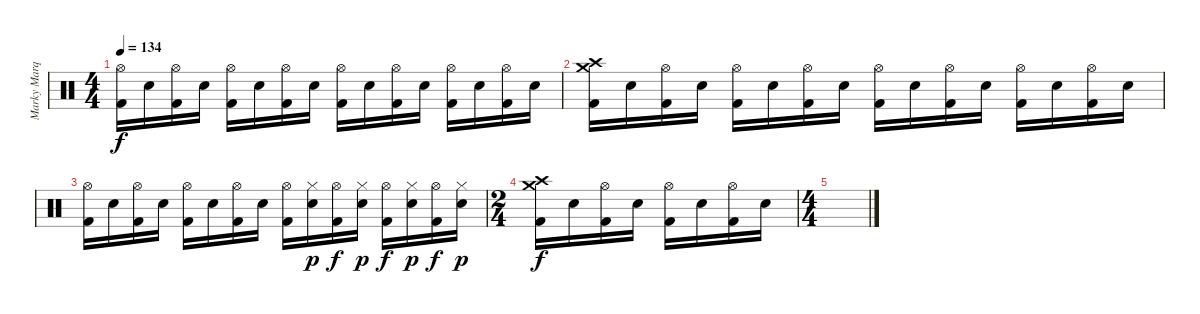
\track ("Marky Marquis" "Marky Marq") {instrument percussion}
\staff {score}
\articulation defaults
\ts (4 4)
\tempo 134
\clef neutral
\ks c
("Hi-Hat (open)" "Kick (hit) 2").16{dy f} "Electric Snare (hit)".16 ("Hi-Hat (open)" "Kick (hit) 2").16 "Electric Snare (hit)".16 ("Hi-Hat (open)" "Kick (hit) 2").16 "Electric Snare (hit)".16 ("Hi-Hat (open)" "Kick (hit) 2").16 "Electric Snare (hit)".16 ("Hi-Hat (open)" "Kick (hit) 2").16 "Electric Snare (hit)".16 ("Hi-Hat (open)" "Kick (hit) 2").16 "Electric Snare (hit)".16 ("Hi-Hat (open)" "Kick (hit) 2").16 "Electric Snare (hit)".16 ("Hi-Hat (open)" "Kick (hit) 2").16 "Electric Snare (hit)".16 |
("Crash medium (hit)" "Crash high (hit)" "Kick (hit) 2").16 "Electric Snare (hit)".16 ("Hi-Hat (open)" "Kick (hit) 2").16 "Electric Snare (hit)".16 ("Hi-Hat (open)" "Kick (hit) 2").16 "Electric Snare (hit)".16 ("Hi-Hat (open)" "Kick (hit) 2").16 "Electric Snare (hit)".16 ("Hi-Hat (open)" "Kick (hit) 2").16 "Electric Snare (hit)".16 ("Hi-Hat (open)" "Kick (hit) 2").16 "Electric Snare (hit)".16 ("Hi-Hat (open)" "Kick (hit) 2").16 "Electric Snare (hit)".16 ("Hi-Hat (open)" "Kick (hit) 2").16 "Electric Snare (hit)".16 |
("Hi-Hat (open)" "Kick (hit) 2").16 "Electric Snare (hit)".16 ("Hi-Hat (open)" "Kick (hit) 2").16 "Electric Snare (hit)".16 ("Hi-Hat (open)" "Kick (hit) 2").16 "Electric Snare (hit)".16 ("Hi-Hat (open)" "Kick (hit) 2").16 "Electric Snare (hit)".16 ("Hi-Hat (open)" "Kick (hit) 2").16 ("Hi-Hat (closed)" "Electric Snare (hit)").16{dy p} ("Hi-Hat (open)" "Kick (hit) 2").16{dy f} ("Hi-Hat (closed)" "Electric Snare (hit)").16{dy p} ("Hi-Hat (open)" "Kick (hit) 2").16{dy f} ("Hi-Hat (closed)" "Electric Snare (hit)").16{dy p} ("Hi-Hat (open)" "Kick (hit) 2").16{dy f} ("Hi-Hat (closed)" "Electric Snare (hit)").16{dy p} |
\ts (2 4)
("Crash medium (hit)" "Crash high (hit)" "Kick (hit) 2").16{dy f} "Electric Snare (hit)".16 ("Hi-Hat (open)" "Kick (hit) 2").16 "Electric Snare (hit)".16 ("Hi-Hat (open)" "Kick (hit) 2").16 "Electric Snare (hit)".16 ("Hi-Hat (open)" "Kick (hit) 2").16 "Electric Snare (hit)".16 |
\ts (4 4)
